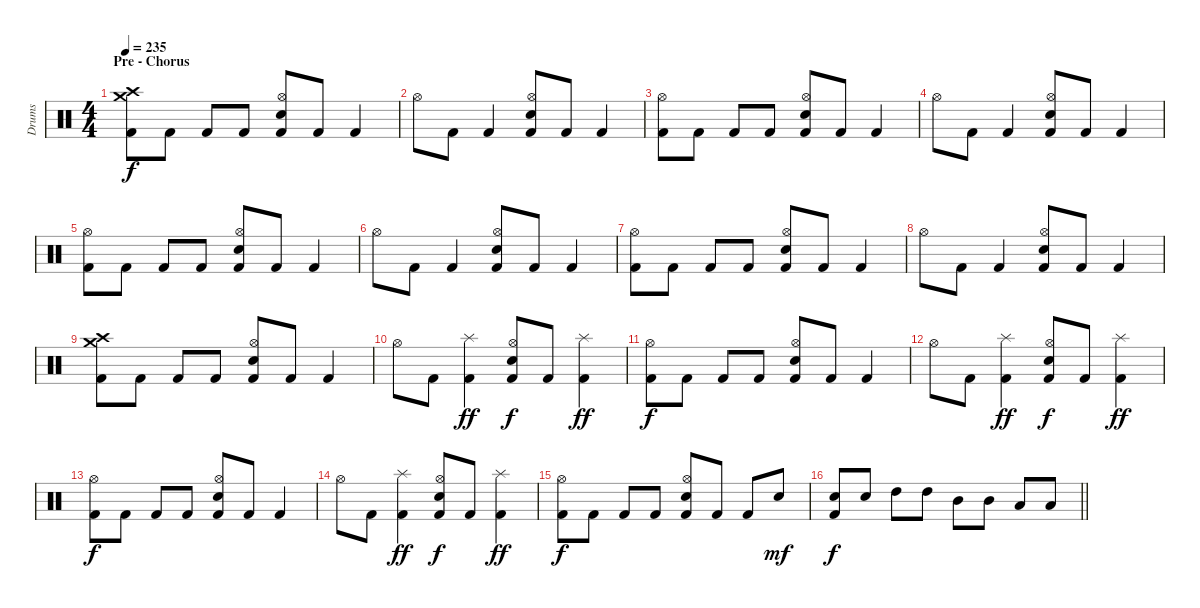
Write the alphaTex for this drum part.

\track ("Drums" "Drums") {instrument percussion}
\staff {score}
\articulation defaults
\ts (4 4)
\section ("" "Pre - Chorus")
\tempo 235
\clef neutral
\ks c
("Crash medium (hit)" "Crash high (hit)" "Kick (hit) 2").8{dy f} "Kick (hit) 2".8 "Kick (hit) 2".8 "Kick (hit) 2".8 ("Hi-Hat (open)" "Electric Snare (hit)" "Kick (hit) 2").8 "Kick (hit) 2".8 "Kick (hit) 2".4 |
"Hi-Hat (open)".8 "Kick (hit) 2".8 "Kick (hit) 2".4 ("Hi-Hat (open)" "Electric Snare (hit)" "Kick (hit) 2").8 "Kick (hit) 2".8 "Kick (hit) 2".4 |
("Hi-Hat (open)" "Kick (hit) 2").8 "Kick (hit) 2".8 "Kick (hit) 2".8 "Kick (hit) 2".8 ("Hi-Hat (open)" "Electric Snare (hit)" "Kick (hit) 2").8 "Kick (hit) 2".8 "Kick (hit) 2".4 |
"Hi-Hat (open)".8 "Kick (hit) 2".8 "Kick (hit) 2".4 ("Hi-Hat (open)" "Electric Snare (hit)" "Kick (hit) 2").8 "Kick (hit) 2".8 "Kick (hit) 2".4 |
("Hi-Hat (open)" "Kick (hit) 2").8 "Kick (hit) 2".8 "Kick (hit) 2".8 "Kick (hit) 2".8 ("Hi-Hat (open)" "Electric Snare (hit)" "Kick (hit) 2").8 "Kick (hit) 2".8 "Kick (hit) 2".4 |
"Hi-Hat (open)".8 "Kick (hit) 2".8 "Kick (hit) 2".4 ("Hi-Hat (open)" "Electric Snare (hit)" "Kick (hit) 2").8 "Kick (hit) 2".8 "Kick (hit) 2".4 |
("Hi-Hat (open)" "Kick (hit) 2").8 "Kick (hit) 2".8 "Kick (hit) 2".8 "Kick (hit) 2".8 ("Hi-Hat (open)" "Electric Snare (hit)" "Kick (hit) 2").8 "Kick (hit) 2".8 "Kick (hit) 2".4 |
"Hi-Hat (open)".8 "Kick (hit) 2".8 "Kick (hit) 2".4 ("Hi-Hat (open)" "Electric Snare (hit)" "Kick (hit) 2").8 "Kick (hit) 2".8 "Kick (hit) 2".4 |
("Crash medium (hit)" "Crash high (hit)" "Kick (hit) 2").8 "Kick (hit) 2".8 "Kick (hit) 2".8 "Kick (hit) 2".8 ("Hi-Hat (open)" "Electric Snare (hit)" "Kick (hit) 2").8 "Kick (hit) 2".8 "Kick (hit) 2".4 |
"Hi-Hat (open)".8 "Kick (hit) 2".8 ("Splash (hit)" "Kick (hit) 2").4{dy ff} ("Hi-Hat (open)" "Electric Snare (hit)" "Kick (hit) 2").8{dy f} "Kick (hit) 2".8 ("Splash (hit)" "Kick (hit) 2").4{dy ff} |
("Hi-Hat (open)" "Kick (hit) 2").8{dy f} "Kick (hit) 2".8 "Kick (hit) 2".8 "Kick (hit) 2".8 ("Hi-Hat (open)" "Electric Snare (hit)" "Kick (hit) 2").8 "Kick (hit) 2".8 "Kick (hit) 2".4 |
"Hi-Hat (open)".8 "Kick (hit) 2".8 ("Splash (hit)" "Kick (hit) 2").4{dy ff} ("Hi-Hat (open)" "Electric Snare (hit)" "Kick (hit) 2").8{dy f} "Kick (hit) 2".8 ("Splash (hit)" "Kick (hit) 2").4{dy ff} |
("Hi-Hat (open)" "Kick (hit) 2").8{dy f} "Kick (hit) 2".8 "Kick (hit) 2".8 "Kick (hit) 2".8 ("Hi-Hat (open)" "Electric Snare (hit)" "Kick (hit) 2").8 "Kick (hit) 2".8 "Kick (hit) 2".4 |
"Hi-Hat (open)".8 "Kick (hit) 2".8 ("Splash (hit)" "Kick (hit) 2").4{dy ff} ("Hi-Hat (open)" "Electric Snare (hit)" "Kick (hit) 2").8{dy f} "Kick (hit) 2".8 ("Splash (hit)" "Kick (hit) 2").4{dy ff} |
("Hi-Hat (open)" "Kick (hit) 2").8{dy f} "Kick (hit) 2".8 "Kick (hit) 2".8 "Kick (hit) 2".8 ("Hi-Hat (open)" "Electric Snare (hit)" "Kick (hit) 2").8 "Kick (hit) 2".8 "Kick (hit) 2".8 "Electric Snare (hit)".8{dy mf} |
\barLineRight lightlight
("Electric Snare (hit)" "Kick (hit) 2").8{dy f} "Electric Snare (hit)".8 "High Tom (hit)".8 "High Tom (hit)".8 "Mid Tom (hit)".8 "Mid Tom (hit)".8 "Low Tom (hit)".8 "Low Tom (hit)".8
